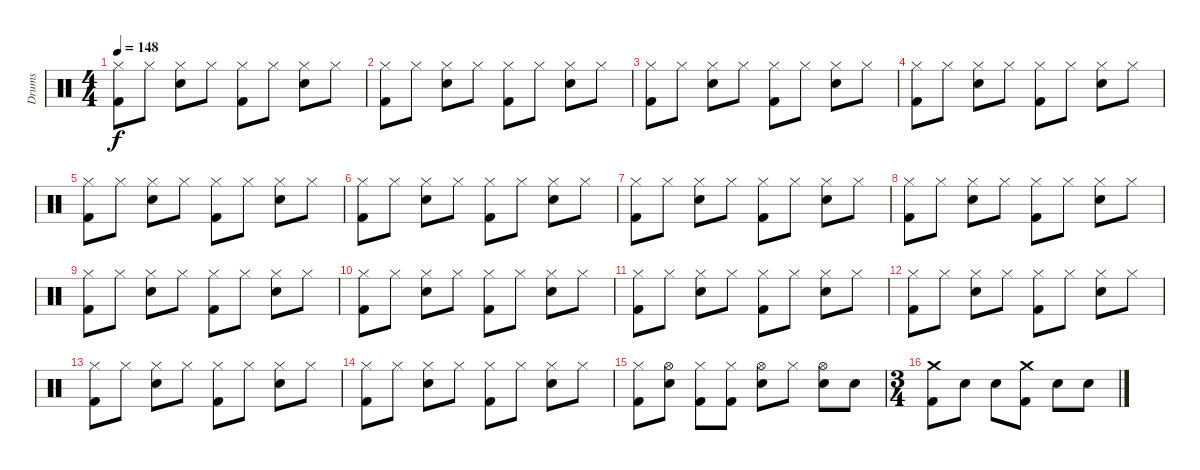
\track ("Drums" "Drums") {instrument percussion}
\staff {score}
\articulation defaults
\ts (4 4)
\tempo 148
\clef neutral
\ks c
("Kick (hit) 2" "Hi-Hat (closed)").8{dy f} "Hi-Hat (closed)".8 ("Snare (hit) 2" "Hi-Hat (closed)").8 "Hi-Hat (closed)".8 ("Kick (hit) 2" "Hi-Hat (closed)").8 "Hi-Hat (closed)".8 ("Snare (hit) 2" "Hi-Hat (closed)").8 "Hi-Hat (closed)".8 |
("Kick (hit) 2" "Hi-Hat (closed)").8 "Hi-Hat (closed)".8 ("Snare (hit) 2" "Hi-Hat (closed)").8 "Hi-Hat (closed)".8 ("Kick (hit) 2" "Hi-Hat (closed)").8 "Hi-Hat (closed)".8 ("Snare (hit) 2" "Hi-Hat (closed)").8 "Hi-Hat (closed)".8 |
("Kick (hit) 2" "Hi-Hat (closed)").8 "Hi-Hat (closed)".8 ("Snare (hit) 2" "Hi-Hat (closed)").8 "Hi-Hat (closed)".8 ("Kick (hit) 2" "Hi-Hat (closed)").8 "Hi-Hat (closed)".8 ("Snare (hit) 2" "Hi-Hat (closed)").8 "Hi-Hat (closed)".8 |
("Kick (hit) 2" "Hi-Hat (closed)").8 "Hi-Hat (closed)".8 ("Snare (hit) 2" "Hi-Hat (closed)").8 "Hi-Hat (closed)".8 ("Kick (hit) 2" "Hi-Hat (closed)").8 "Hi-Hat (closed)".8 ("Snare (hit) 2" "Hi-Hat (closed)").8 "Hi-Hat (closed)".8 |
("Kick (hit) 2" "Hi-Hat (closed)").8 "Hi-Hat (closed)".8 ("Snare (hit) 2" "Hi-Hat (closed)").8 "Hi-Hat (closed)".8 ("Kick (hit) 2" "Hi-Hat (closed)").8 "Hi-Hat (closed)".8 ("Snare (hit) 2" "Hi-Hat (closed)").8 "Hi-Hat (closed)".8 |
("Kick (hit) 2" "Hi-Hat (closed)").8 "Hi-Hat (closed)".8 ("Snare (hit) 2" "Hi-Hat (closed)").8 "Hi-Hat (closed)".8 ("Kick (hit) 2" "Hi-Hat (closed)").8 "Hi-Hat (closed)".8 ("Snare (hit) 2" "Hi-Hat (closed)").8 "Hi-Hat (closed)".8 |
("Kick (hit) 2" "Hi-Hat (closed)").8 "Hi-Hat (closed)".8 ("Snare (hit) 2" "Hi-Hat (closed)").8 "Hi-Hat (closed)".8 ("Kick (hit) 2" "Hi-Hat (closed)").8 "Hi-Hat (closed)".8 ("Snare (hit) 2" "Hi-Hat (closed)").8 "Hi-Hat (closed)".8 |
("Kick (hit) 2" "Hi-Hat (closed)").8 "Hi-Hat (closed)".8 ("Snare (hit) 2" "Hi-Hat (closed)").8 "Hi-Hat (closed)".8 ("Kick (hit) 2" "Hi-Hat (closed)").8 "Hi-Hat (closed)".8 ("Snare (hit) 2" "Hi-Hat (closed)").8 "Hi-Hat (closed)".8 |
("Kick (hit) 2" "Hi-Hat (closed)").8 "Hi-Hat (closed)".8 ("Snare (hit) 2" "Hi-Hat (closed)").8 "Hi-Hat (closed)".8 ("Kick (hit) 2" "Hi-Hat (closed)").8 "Hi-Hat (closed)".8 ("Snare (hit) 2" "Hi-Hat (closed)").8 "Hi-Hat (closed)".8 |
("Kick (hit) 2" "Hi-Hat (closed)").8 "Hi-Hat (closed)".8 ("Snare (hit) 2" "Hi-Hat (closed)").8 "Hi-Hat (closed)".8 ("Kick (hit) 2" "Hi-Hat (closed)").8 "Hi-Hat (closed)".8 ("Snare (hit) 2" "Hi-Hat (closed)").8 "Hi-Hat (closed)".8 |
("Kick (hit) 2" "Hi-Hat (closed)").8 "Hi-Hat (closed)".8 ("Snare (hit) 2" "Hi-Hat (closed)").8 "Hi-Hat (closed)".8 ("Kick (hit) 2" "Hi-Hat (closed)").8 "Hi-Hat (closed)".8 ("Snare (hit) 2" "Hi-Hat (closed)").8 "Hi-Hat (closed)".8 |
("Kick (hit) 2" "Hi-Hat (closed)").8 "Hi-Hat (closed)".8 ("Snare (hit) 2" "Hi-Hat (closed)").8 "Hi-Hat (closed)".8 ("Kick (hit) 2" "Hi-Hat (closed)").8 "Hi-Hat (closed)".8 ("Snare (hit) 2" "Hi-Hat (closed)").8 "Hi-Hat (closed)".8 |
("Kick (hit) 2" "Hi-Hat (closed)").8 "Hi-Hat (closed)".8 ("Snare (hit) 2" "Hi-Hat (closed)").8 "Hi-Hat (closed)".8 ("Kick (hit) 2" "Hi-Hat (closed)").8 "Hi-Hat (closed)".8 ("Snare (hit) 2" "Hi-Hat (closed)").8 "Hi-Hat (closed)".8 |
("Kick (hit) 2" "Hi-Hat (closed)").8 "Hi-Hat (closed)".8 ("Snare (hit) 2" "Hi-Hat (closed)").8 "Hi-Hat (closed)".8 ("Kick (hit) 2" "Hi-Hat (closed)").8 "Hi-Hat (closed)".8 ("Snare (hit) 2" "Hi-Hat (closed)").8 "Hi-Hat (closed)".8 |
("Kick (hit) 2" "Hi-Hat (closed)").8 ("Snare (hit) 2" "Hi-Hat (open)").8 ("Kick (hit) 2" "Hi-Hat (closed)").8 ("Kick (hit) 2" "Hi-Hat (closed)").8 ("Snare (hit) 2" "Hi-Hat (open)").8 "Hi-Hat (closed)".8 ("Snare (hit) 2" "Hi-Hat (open)").8 "Snare (hit) 2".8 |
\ts (3 4)
("Kick (hit) 2" "Crash medium (hit)").8 "Snare (hit) 2".8 "Snare (hit) 2".8 ("Kick (hit) 2" "Crash medium (hit)").8 "Snare (hit) 2".8 "Snare (hit) 2".8
